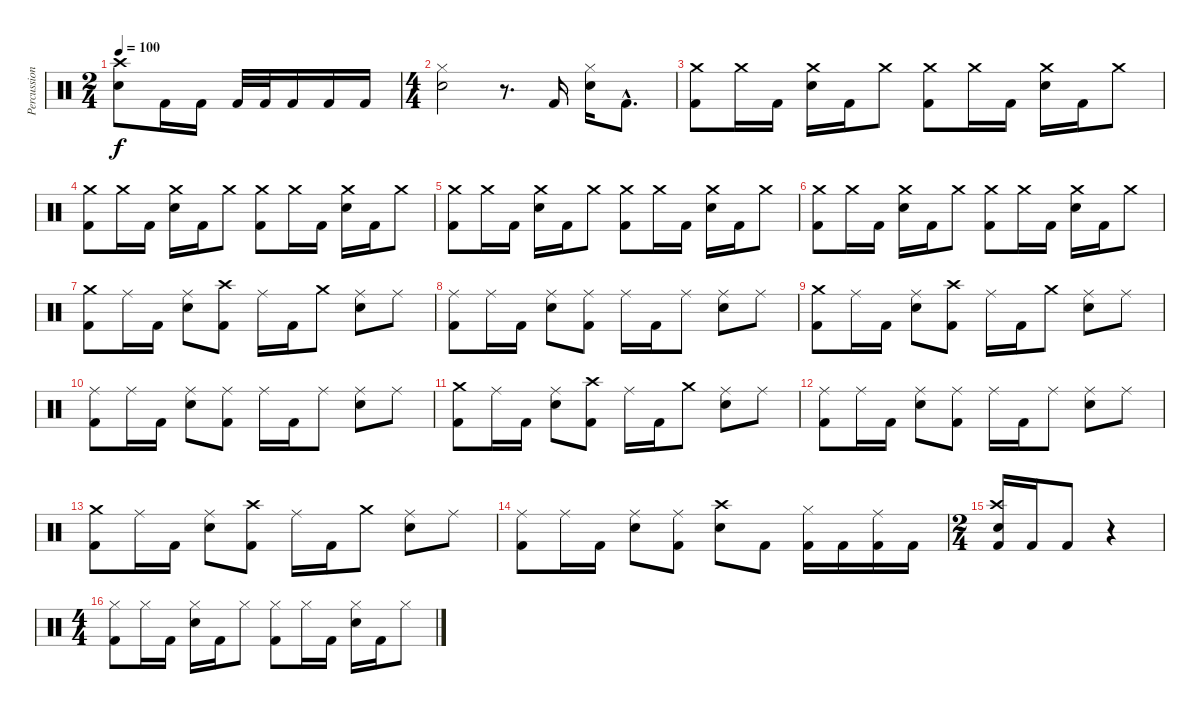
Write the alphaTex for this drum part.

\track ("Percussions" "Percussion") {instrument percussion}
\staff {score}
\articulation defaults
\ts (2 4)
\tempo 100
\clef neutral
\ks c
("Electric Snare (hit)" "Crash high (hit)").8{dy f} "Kick (hit) 2".16 "Kick (hit) 2".16 "Kick (hit) 2".32 "Kick (hit) 2".32 "Kick (hit) 2".16 "Kick (hit) 2".16 "Kick (hit) 2".16 |
\ts (4 4)
("Electric Snare (hit)" "Hi-Hat (closed)").2 r.8{d} "Kick (hit) 2".16 ("Electric Snare (hit)" "Hi-Hat (closed)").16 "Kick (hit) 2"{hac}.8{d} |
("Crash medium (hit)" "Kick (hit) 2").8 "Crash medium (hit)".16 "Kick (hit) 2".16 ("Electric Snare (hit)" "Crash medium (hit)").16 "Kick (hit) 2".16 "Crash medium (hit)".8 ("Crash medium (hit)" "Kick (hit) 2").8 "Crash medium (hit)".16 "Kick (hit) 2".16 ("Electric Snare (hit)" "Crash medium (hit)").16 "Kick (hit) 2".16 "Crash medium (hit)".8 |
("Crash medium (hit)" "Kick (hit) 2").8 "Crash medium (hit)".16 "Kick (hit) 2".16 ("Electric Snare (hit)" "Crash medium (hit)").16 "Kick (hit) 2".16 "Crash medium (hit)".8 ("Crash medium (hit)" "Kick (hit) 2").8 "Crash medium (hit)".16 "Kick (hit) 2".16 ("Electric Snare (hit)" "Crash medium (hit)").16 "Kick (hit) 2".16 "Crash medium (hit)".8 |
("Crash medium (hit)" "Kick (hit) 2").8 "Crash medium (hit)".16 "Kick (hit) 2".16 ("Electric Snare (hit)" "Crash medium (hit)").16 "Kick (hit) 2".16 "Crash medium (hit)".8 ("Crash medium (hit)" "Kick (hit) 2").8 "Crash medium (hit)".16 "Kick (hit) 2".16 ("Electric Snare (hit)" "Crash medium (hit)").16 "Kick (hit) 2".16 "Crash medium (hit)".8 |
("Crash medium (hit)" "Kick (hit) 2").8 "Crash medium (hit)".16 "Kick (hit) 2".16 ("Electric Snare (hit)" "Crash medium (hit)").16 "Kick (hit) 2".16 "Crash medium (hit)".8 ("Crash medium (hit)" "Kick (hit) 2").8 "Crash medium (hit)".16 "Kick (hit) 2".16 ("Electric Snare (hit)" "Crash medium (hit)").16 "Kick (hit) 2".16 "Crash medium (hit)".8 |
("Crash medium (hit)" "Kick (hit) 2").8 "Ride (middle)".16 "Kick (hit) 2".16 ("Electric Snare (hit)" "Ride (middle)").8 ("Crash high (hit)" "Kick (hit) 2").8 "Ride (middle)".16 "Kick (hit) 2".16 "Crash medium (hit)".8 ("Electric Snare (hit)" "Ride (middle)").8 "Ride (middle)".8 |
("Ride (middle)" "Kick (hit) 2").8 "Ride (middle)".16 "Kick (hit) 2".16 ("Electric Snare (hit)" "Ride (middle)").8 ("Ride (middle)" "Kick (hit) 2").8 "Ride (middle)".16 "Kick (hit) 2".16 "Ride (middle)".8 ("Electric Snare (hit)" "Ride (middle)").8 "Ride (middle)".8 |
("Crash medium (hit)" "Kick (hit) 2").8 "Ride (middle)".16 "Kick (hit) 2".16 ("Electric Snare (hit)" "Ride (middle)").8 ("Crash high (hit)" "Kick (hit) 2").8 "Ride (middle)".16 "Kick (hit) 2".16 "Crash medium (hit)".8 ("Electric Snare (hit)" "Ride (middle)").8 "Ride (middle)".8 |
("Ride (middle)" "Kick (hit) 2").8 "Ride (middle)".16 "Kick (hit) 2".16 ("Electric Snare (hit)" "Ride (middle)").8 ("Ride (middle)" "Kick (hit) 2").8 "Ride (middle)".16 "Kick (hit) 2".16 "Ride (middle)".8 ("Electric Snare (hit)" "Ride (middle)").8 "Ride (middle)".8 |
("Crash medium (hit)" "Kick (hit) 2").8 "Ride (middle)".16 "Kick (hit) 2".16 ("Electric Snare (hit)" "Ride (middle)").8 ("Crash high (hit)" "Kick (hit) 2").8 "Ride (middle)".16 "Kick (hit) 2".16 "Crash medium (hit)".8 ("Electric Snare (hit)" "Ride (middle)").8 "Ride (middle)".8 |
("Ride (middle)" "Kick (hit) 2").8 "Ride (middle)".16 "Kick (hit) 2".16 ("Electric Snare (hit)" "Ride (middle)").8 ("Ride (middle)" "Kick (hit) 2").8 "Ride (middle)".16 "Kick (hit) 2".16 "Ride (middle)".8 ("Electric Snare (hit)" "Ride (middle)").8 "Ride (middle)".8 |
("Crash medium (hit)" "Kick (hit) 2").8 "Ride (middle)".16 "Kick (hit) 2".16 ("Electric Snare (hit)" "Ride (middle)").8 ("Crash high (hit)" "Kick (hit) 2").8 "Ride (middle)".16 "Kick (hit) 2".16 "Crash medium (hit)".8 ("Electric Snare (hit)" "Ride (middle)").8 "Ride (middle)".8 |
("Ride (middle)" "Kick (hit) 2").8 "Ride (middle)".16 "Kick (hit) 2".16 ("Electric Snare (hit)" "Ride (middle)").8 ("Ride (middle)" "Kick (hit) 2").8 ("Electric Snare (hit)" "Crash high (hit)").8 "Kick (hit) 2".8 ("Hi-Hat (closed)" "Kick (hit) 2").16 "Kick (hit) 2".16 ("Ride (middle)" "Kick (hit) 2").16 "Kick (hit) 2".16 |
\ts (2 4)
("Electric Snare (hit)" "Crash high (hit)" "Kick (hit) 2").16 "Kick (hit) 2".16 "Kick (hit) 2".8 r.4 |
\ts (4 4)
("Hi-Hat (closed)" "Kick (hit) 2").8 "Hi-Hat (closed)".16 "Kick (hit) 2".16 ("Electric Snare (hit)" "Hi-Hat (closed)").16 "Kick (hit) 2".16 "Hi-Hat (closed)".8 ("Hi-Hat (closed)" "Kick (hit) 2").8 "Hi-Hat (closed)".16 "Kick (hit) 2".16 ("Electric Snare (hit)" "Hi-Hat (closed)").16 "Kick (hit) 2".16 "Hi-Hat (closed)".8
